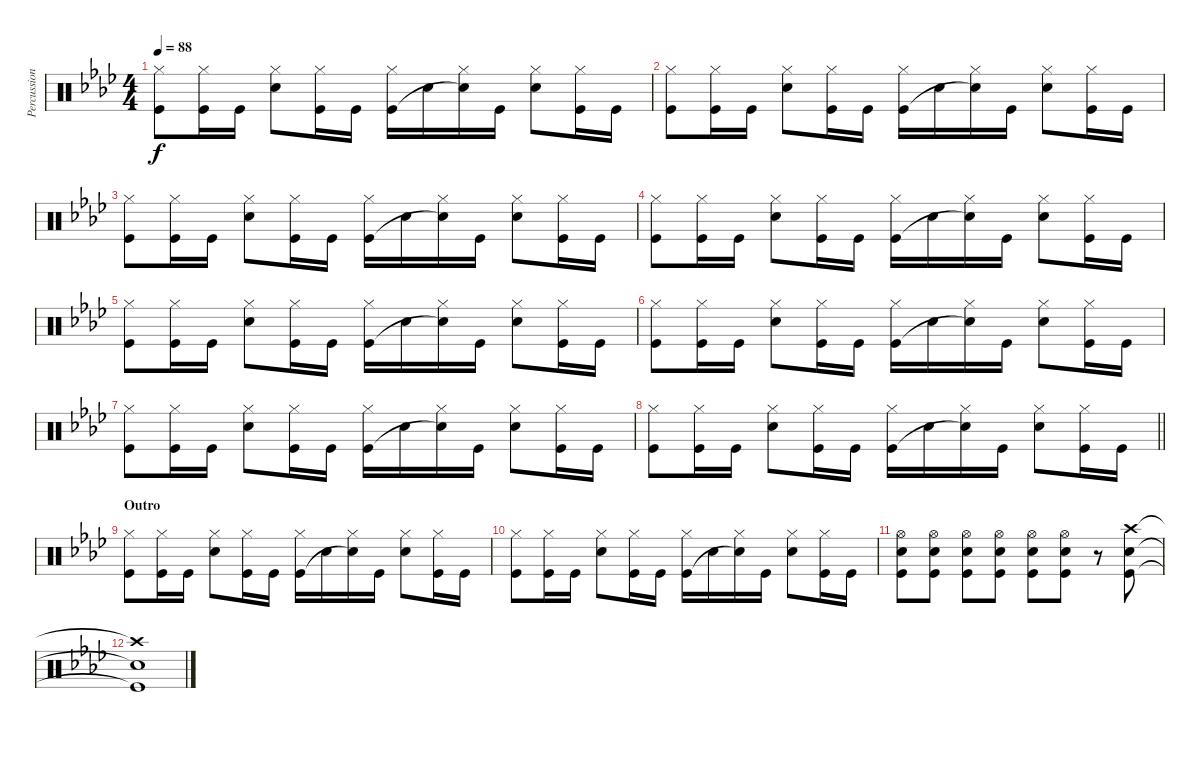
\track ("Percussion" "Percussion") {instrument percussion}
\staff {score}
\articulation defaults
\ts (4 4)
\tempo 88
\clef neutral
\ks ab
("Hi-Hat (closed)" "Kick (hit)").8{dy f} ("Hi-Hat (closed)" "Kick (hit)").16 "Kick (hit)".16 ("Hi-Hat (closed)" "Snare (hit) 2").8 ("Hi-Hat (closed)" "Kick (hit)").16 "Kick (hit)".16 ("Hi-Hat (closed)" "Kick (hit)").16 "Snare (hit) 2".16 ("Hi-Hat (closed)" "Snare (hit) 2"{t}).16 "Kick (hit)".16 ("Hi-Hat (closed)" "Snare (hit) 2").8 ("Hi-Hat (closed)" "Kick (hit)").16 "Kick (hit)".16 |
("Hi-Hat (closed)" "Kick (hit)").8 ("Hi-Hat (closed)" "Kick (hit)").16 "Kick (hit)".16 ("Hi-Hat (closed)" "Snare (hit) 2").8 ("Hi-Hat (closed)" "Kick (hit)").16 "Kick (hit)".16 ("Hi-Hat (closed)" "Kick (hit)").16 "Snare (hit) 2".16 ("Hi-Hat (closed)" "Snare (hit) 2"{t}).16 "Kick (hit)".16 ("Hi-Hat (closed)" "Snare (hit) 2").8 ("Hi-Hat (closed)" "Kick (hit)").16 "Kick (hit)".16 |
("Hi-Hat (closed)" "Kick (hit)").8 ("Hi-Hat (closed)" "Kick (hit)").16 "Kick (hit)".16 ("Hi-Hat (closed)" "Snare (hit) 2").8 ("Hi-Hat (closed)" "Kick (hit)").16 "Kick (hit)".16 ("Hi-Hat (closed)" "Kick (hit)").16 "Snare (hit) 2".16 ("Hi-Hat (closed)" "Snare (hit) 2"{t}).16 "Kick (hit)".16 ("Hi-Hat (closed)" "Snare (hit) 2").8 ("Hi-Hat (closed)" "Kick (hit)").16 "Kick (hit)".16 |
("Hi-Hat (closed)" "Kick (hit)").8 ("Hi-Hat (closed)" "Kick (hit)").16 "Kick (hit)".16 ("Hi-Hat (closed)" "Snare (hit) 2").8 ("Hi-Hat (closed)" "Kick (hit)").16 "Kick (hit)".16 ("Hi-Hat (closed)" "Kick (hit)").16 "Snare (hit) 2".16 ("Hi-Hat (closed)" "Snare (hit) 2"{t}).16 "Kick (hit)".16 ("Hi-Hat (closed)" "Snare (hit) 2").8 ("Hi-Hat (closed)" "Kick (hit)").16 "Kick (hit)".16 |
("Hi-Hat (closed)" "Kick (hit)").8 ("Hi-Hat (closed)" "Kick (hit)").16 "Kick (hit)".16 ("Hi-Hat (closed)" "Snare (hit) 2").8 ("Hi-Hat (closed)" "Kick (hit)").16 "Kick (hit)".16 ("Hi-Hat (closed)" "Kick (hit)").16 "Snare (hit) 2".16 ("Hi-Hat (closed)" "Snare (hit) 2"{t}).16 "Kick (hit)".16 ("Hi-Hat (closed)" "Snare (hit) 2").8 ("Hi-Hat (closed)" "Kick (hit)").16 "Kick (hit)".16 |
("Hi-Hat (closed)" "Kick (hit)").8 ("Hi-Hat (closed)" "Kick (hit)").16 "Kick (hit)".16 ("Hi-Hat (closed)" "Snare (hit) 2").8 ("Hi-Hat (closed)" "Kick (hit)").16 "Kick (hit)".16 ("Hi-Hat (closed)" "Kick (hit)").16 "Snare (hit) 2".16 ("Hi-Hat (closed)" "Snare (hit) 2"{t}).16 "Kick (hit)".16 ("Hi-Hat (closed)" "Snare (hit) 2").8 ("Hi-Hat (closed)" "Kick (hit)").16 "Kick (hit)".16 |
("Hi-Hat (closed)" "Kick (hit)").8 ("Hi-Hat (closed)" "Kick (hit)").16 "Kick (hit)".16 ("Hi-Hat (closed)" "Snare (hit) 2").8 ("Hi-Hat (closed)" "Kick (hit)").16 "Kick (hit)".16 ("Hi-Hat (closed)" "Kick (hit)").16 "Snare (hit) 2".16 ("Hi-Hat (closed)" "Snare (hit) 2"{t}).16 "Kick (hit)".16 ("Hi-Hat (closed)" "Snare (hit) 2").8 ("Hi-Hat (closed)" "Kick (hit)").16 "Kick (hit)".16 |
\barLineRight lightlight
("Hi-Hat (closed)" "Kick (hit)").8 ("Hi-Hat (closed)" "Kick (hit)").16 "Kick (hit)".16 ("Hi-Hat (closed)" "Snare (hit) 2").8 ("Hi-Hat (closed)" "Kick (hit)").16 "Kick (hit)".16 ("Hi-Hat (closed)" "Kick (hit)").16 "Snare (hit) 2".16 ("Hi-Hat (closed)" "Snare (hit) 2"{t}).16 "Kick (hit)".16 ("Hi-Hat (closed)" "Snare (hit) 2").8 ("Hi-Hat (closed)" "Kick (hit)").16 "Kick (hit)".16 |
\section ("" "Outro")
("Hi-Hat (closed)" "Kick (hit)").8 ("Hi-Hat (closed)" "Kick (hit)").16 "Kick (hit)".16 ("Hi-Hat (closed)" "Snare (hit) 2").8 ("Hi-Hat (closed)" "Kick (hit)").16 "Kick (hit)".16 ("Hi-Hat (closed)" "Kick (hit)").16 "Snare (hit) 2".16 ("Hi-Hat (closed)" "Snare (hit) 2"{t}).16 "Kick (hit)".16 ("Hi-Hat (closed)" "Snare (hit) 2").8 ("Hi-Hat (closed)" "Kick (hit)").16 "Kick (hit)".16 |
("Hi-Hat (closed)" "Kick (hit)").8 ("Hi-Hat (closed)" "Kick (hit)").16 "Kick (hit)".16 ("Hi-Hat (closed)" "Snare (hit) 2").8 ("Hi-Hat (closed)" "Kick (hit)").16 "Kick (hit)".16 ("Hi-Hat (closed)" "Kick (hit)").16 "Snare (hit) 2".16 ("Hi-Hat (closed)" "Snare (hit) 2"{t}).16 "Kick (hit)".16 ("Hi-Hat (closed)" "Snare (hit) 2").8 ("Hi-Hat (closed)" "Kick (hit)").16 "Kick (hit)".16 |
("Hi-Hat (open)" "Snare (hit) 2" "Kick (hit)").8 ("Hi-Hat (open)" "Snare (hit) 2" "Kick (hit)").8 ("Hi-Hat (open)" "Snare (hit) 2" "Kick (hit)").8 ("Hi-Hat (open)" "Snare (hit) 2" "Kick (hit)").8 ("Hi-Hat (open)" "Snare (hit) 2" "Kick (hit)").8 ("Hi-Hat (open)" "Snare (hit) 2" "Kick (hit)").8 r.8 ("Crash high (hit)" "Snare (hit) 2" "Kick (hit)").8 |
("Crash high (hit)"{t} "Snare (hit) 2"{t} "Kick (hit)"{t}).1
